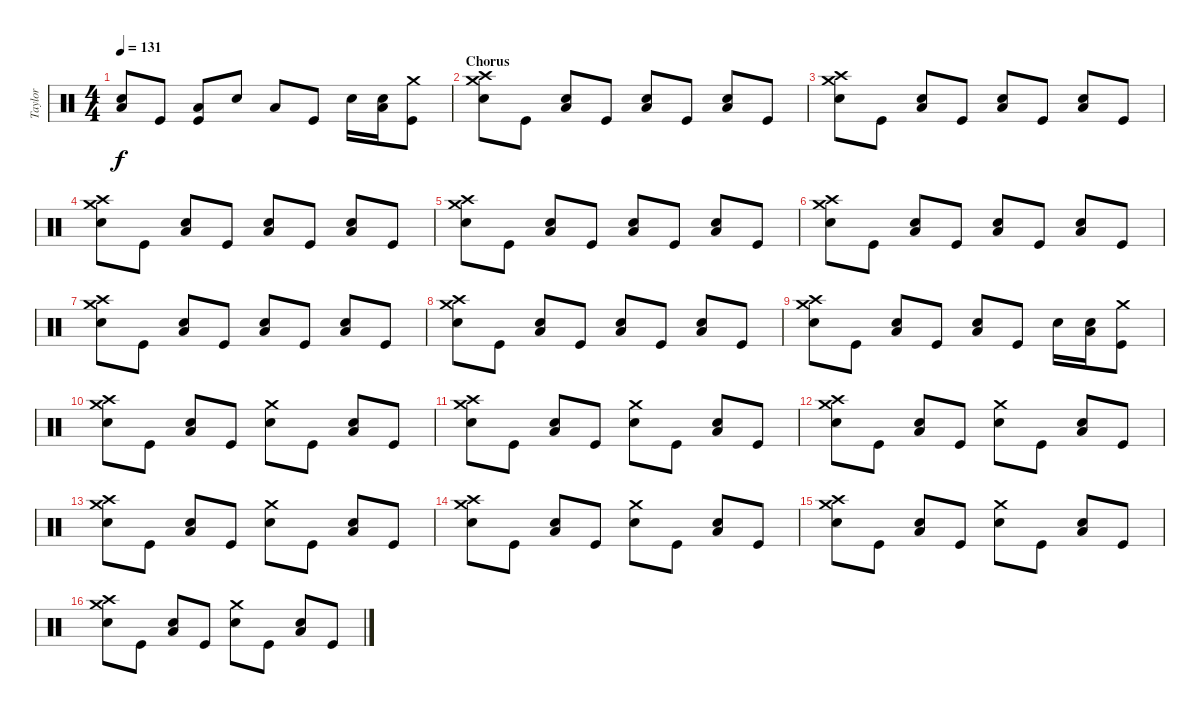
\track ("Taylor" "Taylor") {instrument percussion}
\staff {score}
\articulation defaults
\ts (4 4)
\tempo 131
\clef neutral
\ks c
("Low Floor Tom (hit)" "Snare (hit) 2").8{dy f} "Kick (hit)".8 ("Low Floor Tom (hit)" "Kick (hit)").8 "Snare (hit) 2".8 "Low Floor Tom (hit)".8 "Kick (hit)".8 "Snare (hit) 2".16 ("Snare (hit) 2" "Low Floor Tom (hit)").16 ("Crash medium (hit)" "Kick (hit)").8 |
\section ("" "Chorus")
("Crash medium (hit)" "Crash high (hit)" "Snare (hit) 2").8 "Kick (hit)".8 ("Snare (hit) 2" "Low Floor Tom (hit)").8 "Kick (hit)".8 ("Snare (hit) 2" "Low Floor Tom (hit)").8 "Kick (hit)".8 ("Snare (hit) 2" "Low Floor Tom (hit)").8 "Kick (hit)".8 |
("Crash medium (hit)" "Crash high (hit)" "Snare (hit) 2").8 "Kick (hit)".8 ("Snare (hit) 2" "Low Floor Tom (hit)").8 "Kick (hit)".8 ("Snare (hit) 2" "Low Floor Tom (hit)").8 "Kick (hit)".8 ("Snare (hit) 2" "Low Floor Tom (hit)").8 "Kick (hit)".8 |
("Crash medium (hit)" "Crash high (hit)" "Snare (hit) 2").8 "Kick (hit)".8 ("Snare (hit) 2" "Low Floor Tom (hit)").8 "Kick (hit)".8 ("Snare (hit) 2" "Low Floor Tom (hit)").8 "Kick (hit)".8 ("Snare (hit) 2" "Low Floor Tom (hit)").8 "Kick (hit)".8 |
("Crash medium (hit)" "Crash high (hit)" "Snare (hit) 2").8 "Kick (hit)".8 ("Snare (hit) 2" "Low Floor Tom (hit)").8 "Kick (hit)".8 ("Snare (hit) 2" "Low Floor Tom (hit)").8 "Kick (hit)".8 ("Snare (hit) 2" "Low Floor Tom (hit)").8 "Kick (hit)".8 |
("Crash medium (hit)" "Crash high (hit)" "Snare (hit) 2").8 "Kick (hit)".8 ("Snare (hit) 2" "Low Floor Tom (hit)").8 "Kick (hit)".8 ("Snare (hit) 2" "Low Floor Tom (hit)").8 "Kick (hit)".8 ("Snare (hit) 2" "Low Floor Tom (hit)").8 "Kick (hit)".8 |
("Crash medium (hit)" "Crash high (hit)" "Snare (hit) 2").8 "Kick (hit)".8 ("Snare (hit) 2" "Low Floor Tom (hit)").8 "Kick (hit)".8 ("Snare (hit) 2" "Low Floor Tom (hit)").8 "Kick (hit)".8 ("Snare (hit) 2" "Low Floor Tom (hit)").8 "Kick (hit)".8 |
("Crash medium (hit)" "Crash high (hit)" "Snare (hit) 2").8 "Kick (hit)".8 ("Snare (hit) 2" "Low Floor Tom (hit)").8 "Kick (hit)".8 ("Snare (hit) 2" "Low Floor Tom (hit)").8 "Kick (hit)".8 ("Snare (hit) 2" "Low Floor Tom (hit)").8 "Kick (hit)".8 |
("Crash medium (hit)" "Crash high (hit)" "Snare (hit) 2").8 "Kick (hit)".8 ("Snare (hit) 2" "Low Floor Tom (hit)").8 "Kick (hit)".8 ("Snare (hit) 2" "Low Floor Tom (hit)").8 "Kick (hit)".8 "Snare (hit) 2".16 ("Snare (hit) 2" "Low Floor Tom (hit)").16 ("Crash medium (hit)" "Kick (hit)").8 |
("Crash medium (hit)" "Crash high (hit)" "Snare (hit) 2").8 "Kick (hit)".8 ("Snare (hit) 2" "Low Floor Tom (hit)").8 "Kick (hit)".8 ("Snare (hit) 2" "Crash medium (hit)").8 "Kick (hit)".8 ("Snare (hit) 2" "Low Floor Tom (hit)").8 "Kick (hit)".8 |
("Crash medium (hit)" "Crash high (hit)" "Snare (hit) 2").8 "Kick (hit)".8 ("Snare (hit) 2" "Low Floor Tom (hit)").8 "Kick (hit)".8 ("Snare (hit) 2" "Crash medium (hit)").8 "Kick (hit)".8 ("Snare (hit) 2" "Low Floor Tom (hit)").8 "Kick (hit)".8 |
("Crash medium (hit)" "Crash high (hit)" "Snare (hit) 2").8 "Kick (hit)".8 ("Snare (hit) 2" "Low Floor Tom (hit)").8 "Kick (hit)".8 ("Snare (hit) 2" "Crash medium (hit)").8 "Kick (hit)".8 ("Snare (hit) 2" "Low Floor Tom (hit)").8 "Kick (hit)".8 |
("Crash medium (hit)" "Crash high (hit)" "Snare (hit) 2").8 "Kick (hit)".8 ("Snare (hit) 2" "Low Floor Tom (hit)").8 "Kick (hit)".8 ("Snare (hit) 2" "Crash medium (hit)").8 "Kick (hit)".8 ("Snare (hit) 2" "Low Floor Tom (hit)").8 "Kick (hit)".8 |
("Crash medium (hit)" "Crash high (hit)" "Snare (hit) 2").8 "Kick (hit)".8 ("Snare (hit) 2" "Low Floor Tom (hit)").8 "Kick (hit)".8 ("Snare (hit) 2" "Crash medium (hit)").8 "Kick (hit)".8 ("Snare (hit) 2" "Low Floor Tom (hit)").8 "Kick (hit)".8 |
("Crash medium (hit)" "Crash high (hit)" "Snare (hit) 2").8 "Kick (hit)".8 ("Snare (hit) 2" "Low Floor Tom (hit)").8 "Kick (hit)".8 ("Snare (hit) 2" "Crash medium (hit)").8 "Kick (hit)".8 ("Snare (hit) 2" "Low Floor Tom (hit)").8 "Kick (hit)".8 |
("Crash medium (hit)" "Crash high (hit)" "Snare (hit) 2").8 "Kick (hit)".8 ("Snare (hit) 2" "Low Floor Tom (hit)").8 "Kick (hit)".8 ("Snare (hit) 2" "Crash medium (hit)").8 "Kick (hit)".8 ("Snare (hit) 2" "Low Floor Tom (hit)").8 "Kick (hit)".8
